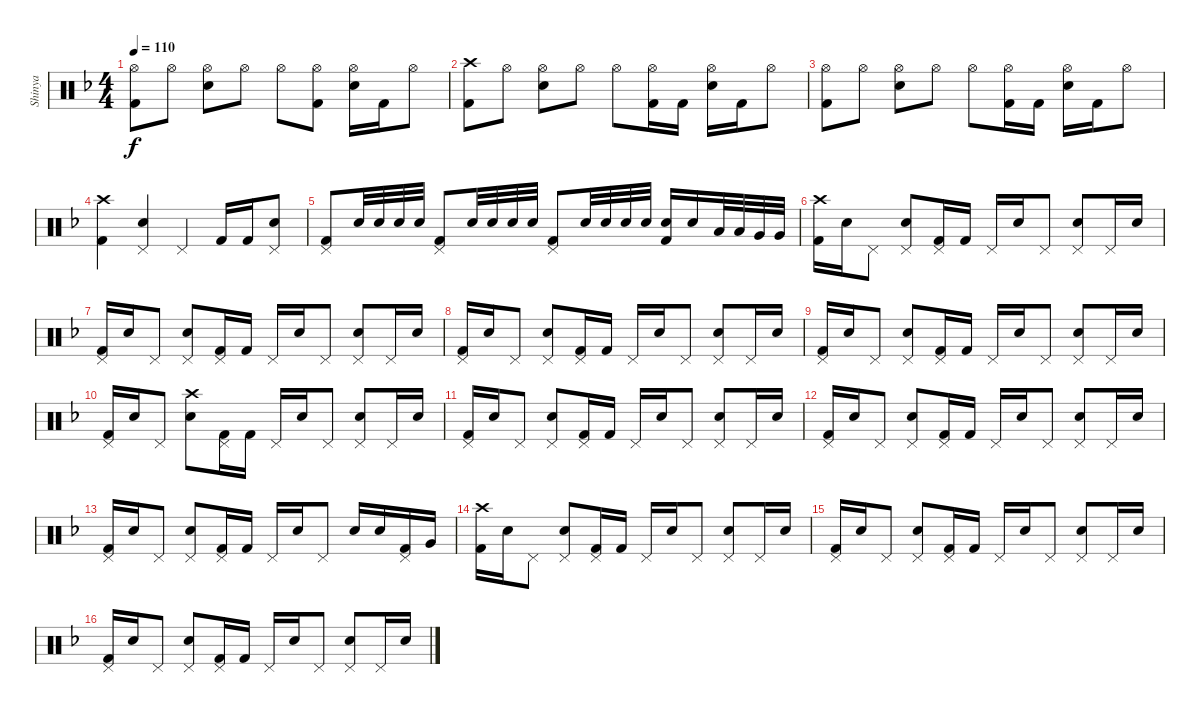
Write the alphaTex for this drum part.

\track ("Shinya" "Shinya") {instrument percussion}
\staff {score}
\articulation defaults
\ts (4 4)
\tempo 110
\clef neutral
\ks f
("Hi-Hat (open)" "Kick (hit) 2").8{dy f} "Hi-Hat (open)".8 ("Hi-Hat (open)" "Electric Snare (hit)").8 "Hi-Hat (open)".8 "Hi-Hat (open)".8 ("Hi-Hat (open)" "Kick (hit) 2").8 ("Hi-Hat (open)" "Electric Snare (hit)").16 "Kick (hit) 2".16 "Hi-Hat (open)".8 |
("Crash high (hit)" "Kick (hit) 2").8 "Hi-Hat (open)".8 ("Hi-Hat (open)" "Electric Snare (hit)").8 "Hi-Hat (open)".8 "Hi-Hat (open)".8 ("Hi-Hat (open)" "Kick (hit) 2").16 "Kick (hit) 2".16 ("Hi-Hat (open)" "Electric Snare (hit)").16 "Kick (hit) 2".16 "Hi-Hat (open)".8 |
("Hi-Hat (open)" "Kick (hit) 2").8 "Hi-Hat (open)".8 ("Hi-Hat (open)" "Electric Snare (hit)").8 "Hi-Hat (open)".8 "Hi-Hat (open)".8 ("Hi-Hat (open)" "Kick (hit) 2").16 "Kick (hit) 2".16 ("Hi-Hat (open)" "Electric Snare (hit)").16 "Kick (hit) 2".16 "Hi-Hat (open)".8 |
("Crash high (hit)" "Kick (hit) 2").4 ("Pedal Hi-Hat (hit)" "Electric Snare (hit)").4 "Pedal Hi-Hat (hit)".4 "Kick (hit) 2".16 "Kick (hit) 2".16 ("Pedal Hi-Hat (hit)" "Electric Snare (hit)").8 |
("Pedal Hi-Hat (hit)" "Kick (hit) 2").8 "Electric Snare (hit)".32 "Electric Snare (hit)".32 "Electric Snare (hit)".32 "Electric Snare (hit)".32 ("Pedal Hi-Hat (hit)" "Kick (hit) 2").8 "Electric Snare (hit)".32 "Electric Snare (hit)".32 "Electric Snare (hit)".32 "Electric Snare (hit)".32 ("Pedal Hi-Hat (hit)" "Kick (hit) 2").8 "Electric Snare (hit)".32 "Electric Snare (hit)".32 "Electric Snare (hit)".32 "Electric Snare (hit)".32 ("Electric Snare (hit)" "Kick (hit) 2").16 "Electric Snare (hit)".16 "Low Tom (hit)".32 "Low Tom (hit)".32 "Very Low Tom (hit)".32 "Very Low Tom (hit)".32 |
("Crash high (hit)" "Kick (hit) 2").16 "Electric Snare (hit)".16 "Pedal Hi-Hat (hit)".8 ("Pedal Hi-Hat (hit)" "Electric Snare (hit)").8 ("Pedal Hi-Hat (hit)" "Kick (hit) 2").16 "Kick (hit) 2".16 "Pedal Hi-Hat (hit)".16 "Electric Snare (hit)".16 "Pedal Hi-Hat (hit)".8 ("Pedal Hi-Hat (hit)" "Electric Snare (hit)").8 "Pedal Hi-Hat (hit)".16 "Electric Snare (hit)".16 |
("Pedal Hi-Hat (hit)" "Kick (hit) 2").16 "Electric Snare (hit)".16 "Pedal Hi-Hat (hit)".8 ("Pedal Hi-Hat (hit)" "Electric Snare (hit)").8 ("Pedal Hi-Hat (hit)" "Kick (hit) 2").16 "Kick (hit) 2".16 "Pedal Hi-Hat (hit)".16 "Electric Snare (hit)".16 "Pedal Hi-Hat (hit)".8 ("Pedal Hi-Hat (hit)" "Electric Snare (hit)").8 "Pedal Hi-Hat (hit)".16 "Electric Snare (hit)".16 |
("Pedal Hi-Hat (hit)" "Kick (hit) 2").16 "Electric Snare (hit)".16 "Pedal Hi-Hat (hit)".8 ("Pedal Hi-Hat (hit)" "Electric Snare (hit)").8 ("Pedal Hi-Hat (hit)" "Kick (hit) 2").16 "Kick (hit) 2".16 "Pedal Hi-Hat (hit)".16 "Electric Snare (hit)".16 "Pedal Hi-Hat (hit)".8 ("Pedal Hi-Hat (hit)" "Electric Snare (hit)").8 "Pedal Hi-Hat (hit)".16 "Electric Snare (hit)".16 |
("Pedal Hi-Hat (hit)" "Kick (hit) 2").16 "Electric Snare (hit)".16 "Pedal Hi-Hat (hit)".8 ("Pedal Hi-Hat (hit)" "Electric Snare (hit)").8 ("Pedal Hi-Hat (hit)" "Kick (hit) 2").16 "Kick (hit) 2".16 "Pedal Hi-Hat (hit)".16 "Electric Snare (hit)".16 "Pedal Hi-Hat (hit)".8 ("Pedal Hi-Hat (hit)" "Electric Snare (hit)").8 "Pedal Hi-Hat (hit)".16 "Electric Snare (hit)".16 |
("Pedal Hi-Hat (hit)" "Kick (hit) 2").16 "Electric Snare (hit)".16 "Pedal Hi-Hat (hit)".8 ("Crash high (hit)" "Electric Snare (hit)").8 ("Pedal Hi-Hat (hit)" "Kick (hit) 2").16 "Kick (hit) 2".16 "Pedal Hi-Hat (hit)".16 "Electric Snare (hit)".16 "Pedal Hi-Hat (hit)".8 ("Pedal Hi-Hat (hit)" "Electric Snare (hit)").8 "Pedal Hi-Hat (hit)".16 "Electric Snare (hit)".16 |
("Pedal Hi-Hat (hit)" "Kick (hit) 2").16 "Electric Snare (hit)".16 "Pedal Hi-Hat (hit)".8 ("Pedal Hi-Hat (hit)" "Electric Snare (hit)").8 ("Pedal Hi-Hat (hit)" "Kick (hit) 2").16 "Kick (hit) 2".16 "Pedal Hi-Hat (hit)".16 "Electric Snare (hit)".16 "Pedal Hi-Hat (hit)".8 ("Pedal Hi-Hat (hit)" "Electric Snare (hit)").8 "Pedal Hi-Hat (hit)".16 "Electric Snare (hit)".16 |
("Pedal Hi-Hat (hit)" "Kick (hit) 2").16 "Electric Snare (hit)".16 "Pedal Hi-Hat (hit)".8 ("Pedal Hi-Hat (hit)" "Electric Snare (hit)").8 ("Pedal Hi-Hat (hit)" "Kick (hit) 2").16 "Kick (hit) 2".16 "Pedal Hi-Hat (hit)".16 "Electric Snare (hit)".16 "Pedal Hi-Hat (hit)".8 ("Pedal Hi-Hat (hit)" "Electric Snare (hit)").8 "Pedal Hi-Hat (hit)".16 "Electric Snare (hit)".16 |
("Pedal Hi-Hat (hit)" "Kick (hit) 2").16 "Electric Snare (hit)".16 "Pedal Hi-Hat (hit)".8 ("Pedal Hi-Hat (hit)" "Electric Snare (hit)").8 ("Pedal Hi-Hat (hit)" "Kick (hit) 2").16 "Kick (hit) 2".16 "Pedal Hi-Hat (hit)".16 "Electric Snare (hit)".16 "Pedal Hi-Hat (hit)".8 "Electric Snare (hit)".16 "Electric Snare (hit)".16 ("Pedal Hi-Hat (hit)" "Kick (hit) 2").16 "Very Low Tom (hit)".16 |
("Crash high (hit)" "Kick (hit) 2").16 "Electric Snare (hit)".16 "Pedal Hi-Hat (hit)".8 ("Pedal Hi-Hat (hit)" "Electric Snare (hit)").8 ("Pedal Hi-Hat (hit)" "Kick (hit) 2").16 "Kick (hit) 2".16 "Pedal Hi-Hat (hit)".16 "Electric Snare (hit)".16 "Pedal Hi-Hat (hit)".8 ("Pedal Hi-Hat (hit)" "Electric Snare (hit)").8 "Pedal Hi-Hat (hit)".16 "Electric Snare (hit)".16 |
("Pedal Hi-Hat (hit)" "Kick (hit) 2").16 "Electric Snare (hit)".16 "Pedal Hi-Hat (hit)".8 ("Pedal Hi-Hat (hit)" "Electric Snare (hit)").8 ("Pedal Hi-Hat (hit)" "Kick (hit) 2").16 "Kick (hit) 2".16 "Pedal Hi-Hat (hit)".16 "Electric Snare (hit)".16 "Pedal Hi-Hat (hit)".8 ("Pedal Hi-Hat (hit)" "Electric Snare (hit)").8 "Pedal Hi-Hat (hit)".16 "Electric Snare (hit)".16 |
("Pedal Hi-Hat (hit)" "Kick (hit) 2").16 "Electric Snare (hit)".16 "Pedal Hi-Hat (hit)".8 ("Pedal Hi-Hat (hit)" "Electric Snare (hit)").8 ("Pedal Hi-Hat (hit)" "Kick (hit) 2").16 "Kick (hit) 2".16 "Pedal Hi-Hat (hit)".16 "Electric Snare (hit)".16 "Pedal Hi-Hat (hit)".8 ("Pedal Hi-Hat (hit)" "Electric Snare (hit)").8 "Pedal Hi-Hat (hit)".16 "Electric Snare (hit)".16
